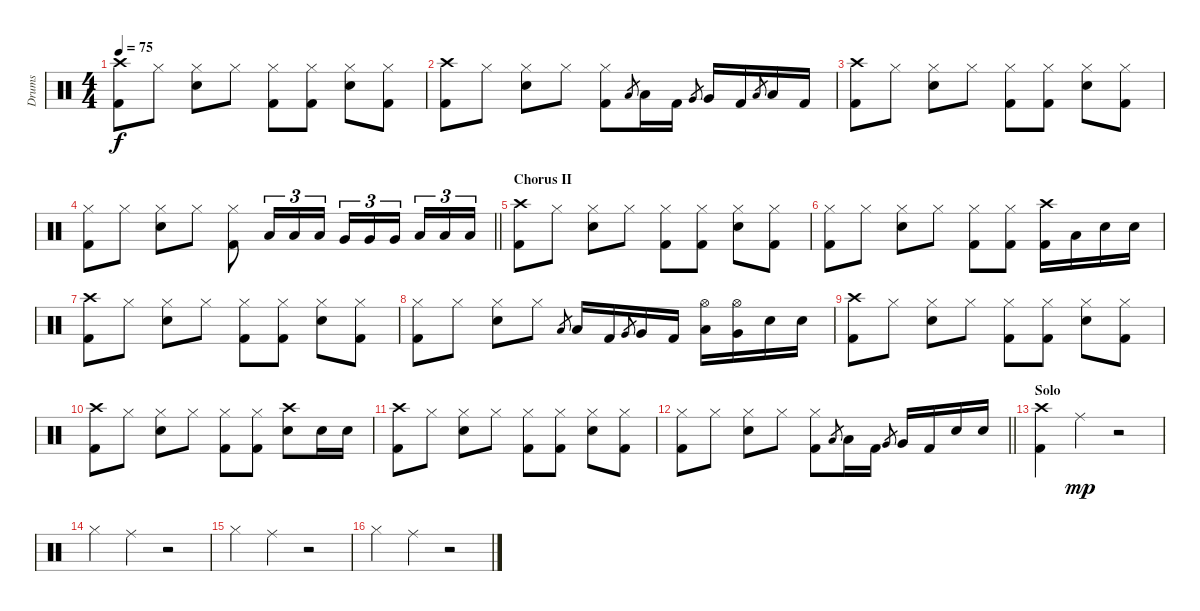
\track ("Drums" "Drums") {instrument percussion}
\staff {score}
\articulation defaults
\ts (4 4)
\tempo 75
\clef neutral
\ks c
("Crash high (hit)" "Kick (hit) 2").8{dy f} "Hi-Hat (closed)".8 ("Hi-Hat (closed)" "Snare (hit) 2").8 "Hi-Hat (closed)".8 ("Hi-Hat (closed)" "Kick (hit) 2").8 ("Hi-Hat (closed)" "Kick (hit) 2").8 ("Hi-Hat (closed)" "Snare (hit) 2").8 ("Hi-Hat (closed)" "Kick (hit) 2").8 |
("Crash high (hit)" "Kick (hit) 2").8 "Hi-Hat (closed)".8 ("Hi-Hat (closed)" "Snare (hit) 2").8 "Hi-Hat (closed)".8 ("Hi-Hat (closed)" "Kick (hit) 2").8 "Low Tom (hit)".8{gr} "Low Tom (hit)".16 "Kick (hit) 2".16 "Very Low Tom (hit)".8{gr} "Very Low Tom (hit)".16 "Kick (hit) 2".16 "Low Floor Tom (hit)".8{gr} "Low Floor Tom (hit)".16 "Kick (hit) 2".16 |
("Crash high (hit)" "Kick (hit) 2").8 "Hi-Hat (closed)".8 ("Hi-Hat (closed)" "Snare (hit) 2").8 "Hi-Hat (closed)".8 ("Hi-Hat (closed)" "Kick (hit) 2").8 ("Hi-Hat (closed)" "Kick (hit) 2").8 ("Hi-Hat (closed)" "Snare (hit) 2").8 ("Hi-Hat (closed)" "Kick (hit) 2").8 |
\barLineRight lightlight
("Hi-Hat (closed)" "Kick (hit) 2").8 "Hi-Hat (closed)".8 ("Hi-Hat (closed)" "Snare (hit) 2").8 "Hi-Hat (closed)".8 ("Hi-Hat (closed)" "Kick (hit) 2").8 "Low Tom (hit)".16{tu (3 2)} "Low Tom (hit)".16{tu (3 2)} "Low Tom (hit)".16{tu (3 2)} "Very Low Tom (hit)".16{tu (3 2)} "Very Low Tom (hit)".16{tu (3 2)} "Very Low Tom (hit)".16{tu (3 2) beam splitsecondary} "Low Floor Tom (hit)".16{tu (3 2)} "Low Floor Tom (hit)".16{tu (3 2)} "Low Floor Tom (hit)".16{tu (3 2)} |
\section ("" "Chorus II")
("Crash high (hit)" "Kick (hit) 2").8 "Hi-Hat (closed)".8 ("Hi-Hat (closed)" "Snare (hit) 2").8 "Hi-Hat (closed)".8 ("Hi-Hat (closed)" "Kick (hit) 2").8 ("Hi-Hat (closed)" "Kick (hit) 2").8 ("Hi-Hat (closed)" "Snare (hit) 2").8 ("Hi-Hat (closed)" "Kick (hit) 2").8 |
("Hi-Hat (closed)" "Kick (hit) 2").8 "Hi-Hat (closed)".8 ("Hi-Hat (closed)" "Snare (hit) 2").8 "Hi-Hat (closed)".8 ("Hi-Hat (closed)" "Kick (hit) 2").8 ("Hi-Hat (closed)" "Kick (hit) 2").8 ("Crash high (hit)" "Kick (hit) 2").16 "Low Floor Tom (hit)".16 "Snare (hit) 2".16 "Snare (hit) 2".16 |
("Crash high (hit)" "Kick (hit) 2").8 "Hi-Hat (closed)".8 ("Hi-Hat (closed)" "Snare (hit) 2").8 "Hi-Hat (closed)".8 ("Hi-Hat (closed)" "Kick (hit) 2").8 ("Hi-Hat (closed)" "Kick (hit) 2").8 ("Hi-Hat (closed)" "Snare (hit) 2").8 ("Hi-Hat (closed)" "Kick (hit) 2").8 |
("Hi-Hat (closed)" "Kick (hit) 2").8 "Hi-Hat (closed)".8 ("Hi-Hat (closed)" "Snare (hit) 2").8 "Hi-Hat (closed)".8 "Low Tom (hit)".8{gr} "Low Tom (hit)".16 "Kick (hit) 2".16 "Very Low Tom (hit)".8{gr} "Very Low Tom (hit)".16 "Kick (hit) 2".16 ("Hi-Hat (open)" "Low Tom (hit)").16 ("Hi-Hat (open)" "Very Low Tom (hit)").16 "Snare (hit) 2".16 "Snare (hit) 2".16 |
("Crash high (hit)" "Kick (hit) 2").8 "Hi-Hat (closed)".8 ("Hi-Hat (closed)" "Snare (hit) 2").8 "Hi-Hat (closed)".8 ("Hi-Hat (closed)" "Kick (hit) 2").8 ("Hi-Hat (closed)" "Kick (hit) 2").8 ("Hi-Hat (closed)" "Snare (hit) 2").8 ("Hi-Hat (closed)" "Kick (hit) 2").8 |
("Crash high (hit)" "Kick (hit) 2").8 "Hi-Hat (closed)".8 ("Hi-Hat (closed)" "Snare (hit) 2").8 "Hi-Hat (closed)".8 ("Hi-Hat (closed)" "Kick (hit) 2").8 ("Hi-Hat (closed)" "Kick (hit) 2").8 ("Crash high (hit)" "Snare (hit) 2").8 "Snare (hit) 2".16 "Snare (hit) 2".16 |
("Crash high (hit)" "Kick (hit) 2").8 "Hi-Hat (closed)".8 ("Hi-Hat (closed)" "Snare (hit) 2").8 "Hi-Hat (closed)".8 ("Hi-Hat (closed)" "Kick (hit) 2").8 ("Hi-Hat (closed)" "Kick (hit) 2").8 ("Hi-Hat (closed)" "Snare (hit) 2").8 ("Hi-Hat (closed)" "Kick (hit) 2").8 |
\barLineRight lightlight
("Hi-Hat (closed)" "Kick (hit) 2").8 "Hi-Hat (closed)".8 ("Hi-Hat (closed)" "Snare (hit) 2").8 "Hi-Hat (closed)".8 ("Hi-Hat (closed)" "Kick (hit) 2").8 "Low Tom (hit)".8{gr} "Low Tom (hit)".16 "Kick (hit) 2".16 "Very Low Tom (hit)".8{gr} "Very Low Tom (hit)".16 "Kick (hit) 2".16 "Snare (hit) 2".16 "Snare (hit) 2".16 |
\section ("" "Solo")
("Crash high (hit)" "Kick (hit) 2").4 "Ride (middle)".4{dy mp} r.2 |
"Hi-Hat (closed)".4 "Ride (middle)".4 r.2 |
"Hi-Hat (closed)".4 "Ride (middle)".4 r.2 |
"Hi-Hat (closed)".4 "Ride (middle)".4 r.2
